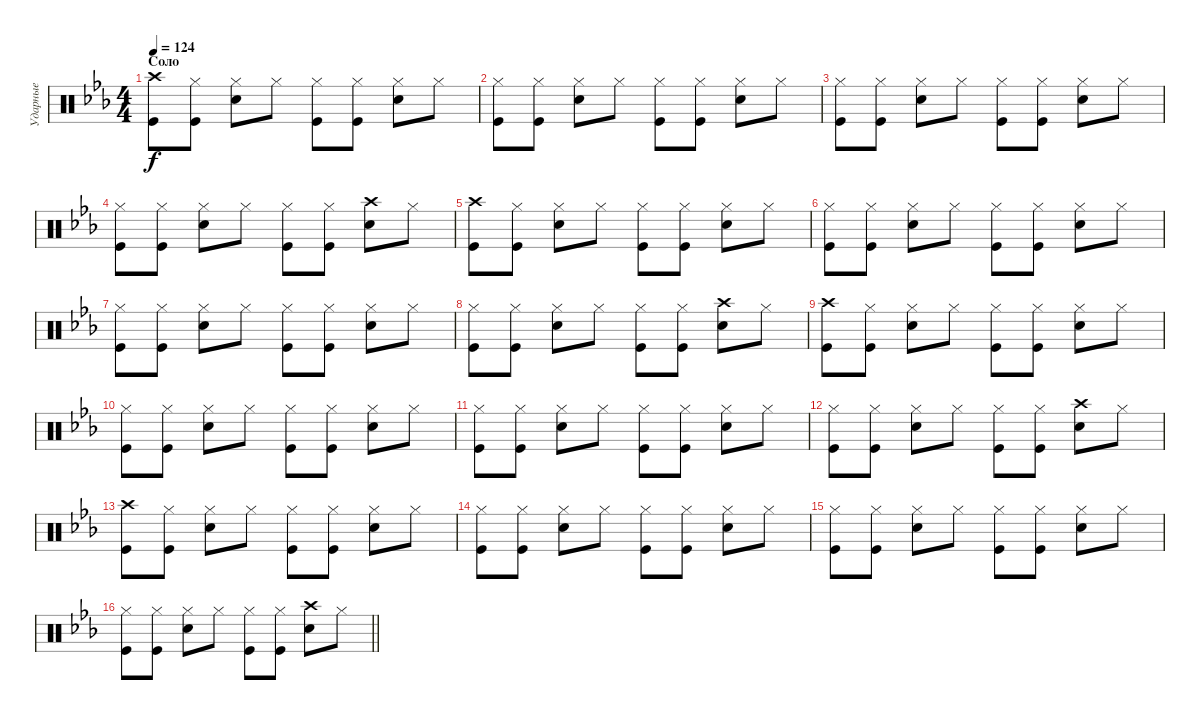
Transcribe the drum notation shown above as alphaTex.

\track ("Ударные" "Ударные") {instrument percussion}
\staff {score}
\articulation defaults
\ts (4 4)
\section ("" "Соло")
\tempo 124
\clef neutral
\ks cminor
("Crash high (hit)" "Kick (hit)").8{dy f} ("Kick (hit)" "Hi-Hat (closed)").8 ("Hi-Hat (closed)" "Snare (hit) 2").8 "Hi-Hat (closed)".8 ("Hi-Hat (closed)" "Kick (hit)").8 ("Kick (hit)" "Hi-Hat (closed)").8 ("Hi-Hat (closed)" "Snare (hit) 2").8 "Hi-Hat (closed)".8 |
("Hi-Hat (closed)" "Kick (hit)").8 ("Hi-Hat (closed)" "Kick (hit)").8 ("Hi-Hat (closed)" "Snare (hit) 2").8 "Hi-Hat (closed)".8 ("Hi-Hat (closed)" "Kick (hit)").8 ("Kick (hit)" "Hi-Hat (closed)").8 ("Hi-Hat (closed)" "Snare (hit) 2").8 "Hi-Hat (closed)".8 |
("Hi-Hat (closed)" "Kick (hit)").8 ("Hi-Hat (closed)" "Kick (hit)").8 ("Hi-Hat (closed)" "Snare (hit) 2").8 "Hi-Hat (closed)".8 ("Hi-Hat (closed)" "Kick (hit)").8 ("Kick (hit)" "Hi-Hat (closed)").8 ("Hi-Hat (closed)" "Snare (hit) 2").8 "Hi-Hat (closed)".8 |
("Hi-Hat (closed)" "Kick (hit)").8 ("Hi-Hat (closed)" "Kick (hit)").8 ("Hi-Hat (closed)" "Snare (hit) 2").8 "Hi-Hat (closed)".8 ("Hi-Hat (closed)" "Kick (hit)").8 ("Kick (hit)" "Hi-Hat (closed)").8 ("Snare (hit) 2" "Crash high (hit)").8 "Hi-Hat (closed)".8 |
("Crash high (hit)" "Kick (hit)").8 ("Kick (hit)" "Hi-Hat (closed)").8 ("Hi-Hat (closed)" "Snare (hit) 2").8 "Hi-Hat (closed)".8 ("Hi-Hat (closed)" "Kick (hit)").8 ("Kick (hit)" "Hi-Hat (closed)").8 ("Hi-Hat (closed)" "Snare (hit) 2").8 "Hi-Hat (closed)".8 |
("Hi-Hat (closed)" "Kick (hit)").8 ("Hi-Hat (closed)" "Kick (hit)").8 ("Hi-Hat (closed)" "Snare (hit) 2").8 "Hi-Hat (closed)".8 ("Hi-Hat (closed)" "Kick (hit)").8 ("Kick (hit)" "Hi-Hat (closed)").8 ("Hi-Hat (closed)" "Snare (hit) 2").8 "Hi-Hat (closed)".8 |
("Hi-Hat (closed)" "Kick (hit)").8 ("Hi-Hat (closed)" "Kick (hit)").8 ("Hi-Hat (closed)" "Snare (hit) 2").8 "Hi-Hat (closed)".8 ("Hi-Hat (closed)" "Kick (hit)").8 ("Kick (hit)" "Hi-Hat (closed)").8 ("Hi-Hat (closed)" "Snare (hit) 2").8 "Hi-Hat (closed)".8 |
("Hi-Hat (closed)" "Kick (hit)").8 ("Hi-Hat (closed)" "Kick (hit)").8 ("Hi-Hat (closed)" "Snare (hit) 2").8 "Hi-Hat (closed)".8 ("Hi-Hat (closed)" "Kick (hit)").8 ("Kick (hit)" "Hi-Hat (closed)").8 ("Snare (hit) 2" "Crash high (hit)").8 "Hi-Hat (closed)".8 |
("Crash high (hit)" "Kick (hit)").8 ("Kick (hit)" "Hi-Hat (closed)").8 ("Hi-Hat (closed)" "Snare (hit) 2").8 "Hi-Hat (closed)".8 ("Hi-Hat (closed)" "Kick (hit)").8 ("Kick (hit)" "Hi-Hat (closed)").8 ("Hi-Hat (closed)" "Snare (hit) 2").8 "Hi-Hat (closed)".8 |
("Hi-Hat (closed)" "Kick (hit)").8 ("Hi-Hat (closed)" "Kick (hit)").8 ("Hi-Hat (closed)" "Snare (hit) 2").8 "Hi-Hat (closed)".8 ("Hi-Hat (closed)" "Kick (hit)").8 ("Kick (hit)" "Hi-Hat (closed)").8 ("Hi-Hat (closed)" "Snare (hit) 2").8 "Hi-Hat (closed)".8 |
("Hi-Hat (closed)" "Kick (hit)").8 ("Hi-Hat (closed)" "Kick (hit)").8 ("Hi-Hat (closed)" "Snare (hit) 2").8 "Hi-Hat (closed)".8 ("Hi-Hat (closed)" "Kick (hit)").8 ("Kick (hit)" "Hi-Hat (closed)").8 ("Hi-Hat (closed)" "Snare (hit) 2").8 "Hi-Hat (closed)".8 |
("Hi-Hat (closed)" "Kick (hit)").8 ("Hi-Hat (closed)" "Kick (hit)").8 ("Hi-Hat (closed)" "Snare (hit) 2").8 "Hi-Hat (closed)".8 ("Hi-Hat (closed)" "Kick (hit)").8 ("Kick (hit)" "Hi-Hat (closed)").8 ("Snare (hit) 2" "Crash high (hit)").8 "Hi-Hat (closed)".8 |
("Crash high (hit)" "Kick (hit)").8 ("Kick (hit)" "Hi-Hat (closed)").8 ("Hi-Hat (closed)" "Snare (hit) 2").8 "Hi-Hat (closed)".8 ("Hi-Hat (closed)" "Kick (hit)").8 ("Kick (hit)" "Hi-Hat (closed)").8 ("Hi-Hat (closed)" "Snare (hit) 2").8 "Hi-Hat (closed)".8 |
("Hi-Hat (closed)" "Kick (hit)").8 ("Hi-Hat (closed)" "Kick (hit)").8 ("Hi-Hat (closed)" "Snare (hit) 2").8 "Hi-Hat (closed)".8 ("Hi-Hat (closed)" "Kick (hit)").8 ("Kick (hit)" "Hi-Hat (closed)").8 ("Hi-Hat (closed)" "Snare (hit) 2").8 "Hi-Hat (closed)".8 |
("Hi-Hat (closed)" "Kick (hit)").8 ("Hi-Hat (closed)" "Kick (hit)").8 ("Hi-Hat (closed)" "Snare (hit) 2").8 "Hi-Hat (closed)".8 ("Hi-Hat (closed)" "Kick (hit)").8 ("Kick (hit)" "Hi-Hat (closed)").8 ("Hi-Hat (closed)" "Snare (hit) 2").8 "Hi-Hat (closed)".8 |
\barLineRight lightlight
("Hi-Hat (closed)" "Kick (hit)").8 ("Hi-Hat (closed)" "Kick (hit)").8 ("Hi-Hat (closed)" "Snare (hit) 2").8 "Hi-Hat (closed)".8 ("Hi-Hat (closed)" "Kick (hit)").8 ("Kick (hit)" "Hi-Hat (closed)").8 ("Snare (hit) 2" "Crash high (hit)").8 "Hi-Hat (closed)".8
